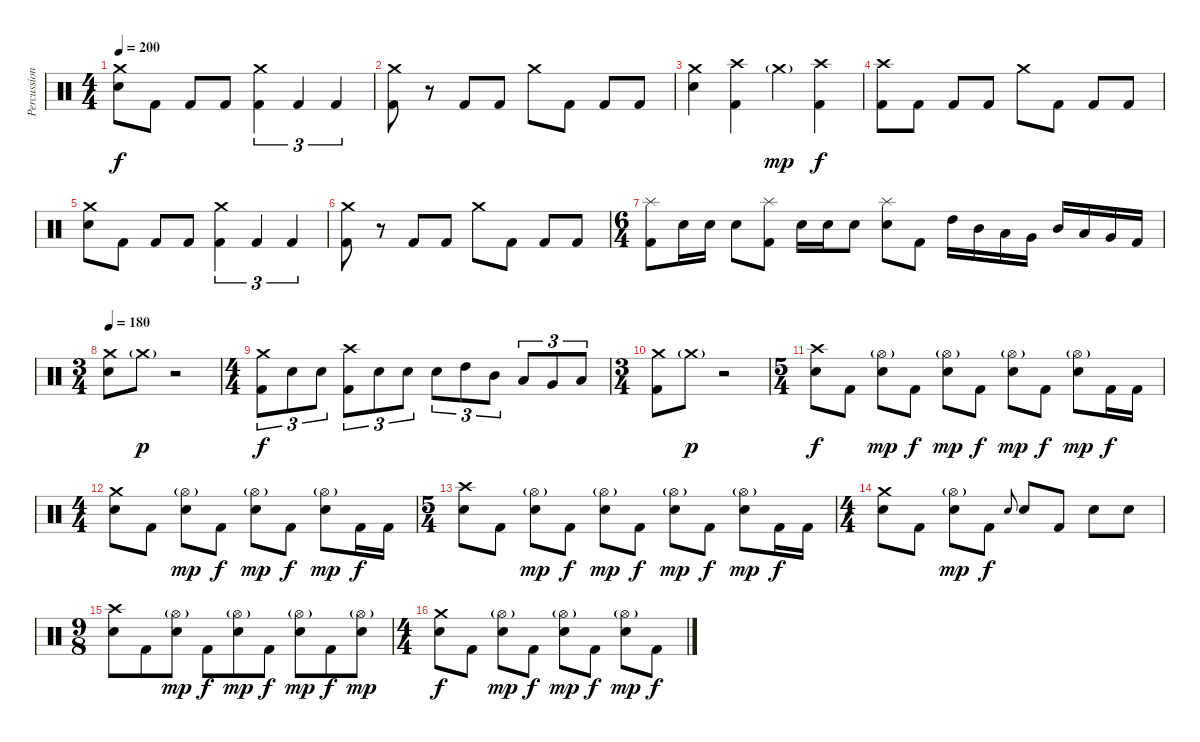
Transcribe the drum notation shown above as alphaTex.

\track ("Percussion" "Percussion") {instrument percussion}
\staff {score}
\articulation defaults
\ts (4 4)
\tempo 200
\clef neutral
\ks c
("Crash medium (hit)" "Electric Snare (hit)").8{dy f} "Kick (hit) 2".8 "Kick (hit) 2".8 "Kick (hit) 2".8 ("Crash medium (hit)" "Kick (hit) 2").4{tu (3 2)} "Kick (hit) 2".4{tu (3 2)} "Kick (hit) 2".4{tu (3 2)} |
("Crash medium (hit)" "Kick (hit) 2").8 r.8 "Kick (hit) 2".8 "Kick (hit) 2".8 "Crash medium (hit)".8 "Kick (hit) 2".8 "Kick (hit) 2".8 "Kick (hit) 2".8 |
("Crash medium (hit)" "Electric Snare (hit)").4 ("Crash high (hit)" "Kick (hit) 2").4 "Crash medium (hit)"{g}.4{dy mp} ("Crash high (hit)" "Kick (hit) 2").4{dy f} |
("Crash high (hit)" "Kick (hit) 2").8 "Kick (hit) 2".8 "Kick (hit) 2".8 "Kick (hit) 2".8 "Crash medium (hit)".8 "Kick (hit) 2".8 "Kick (hit) 2".8 "Kick (hit) 2".8 |
("Crash medium (hit)" "Electric Snare (hit)").8 "Kick (hit) 2".8 "Kick (hit) 2".8 "Kick (hit) 2".8 ("Crash medium (hit)" "Kick (hit) 2").4{tu (3 2)} "Kick (hit) 2".4{tu (3 2)} "Kick (hit) 2".4{tu (3 2)} |
("Crash medium (hit)" "Kick (hit) 2").8 r.8 "Kick (hit) 2".8 "Kick (hit) 2".8 "Crash medium (hit)".8 "Kick (hit) 2".8 "Kick (hit) 2".8 "Kick (hit) 2".8 |
\ts (6 4)
("Splash (hit)" "Kick (hit) 2").8 "Electric Snare (hit)".16 "Electric Snare (hit)".16 "Electric Snare (hit)".8 ("Splash (hit)" "Kick (hit) 2").8 "Electric Snare (hit)".16 "Electric Snare (hit)".16 "Electric Snare (hit)".8 ("Splash (hit)" "Electric Snare (hit)").8 "Kick (hit) 2".8 "High Tom (hit)".16 "Mid Tom (hit)".16 "Low Tom (hit)".16 "Very Low Tom (hit)".16 "Mid Tom (hit)".16 "Low Tom (hit)".16 "Very Low Tom (hit)".16 "Kick (hit) 2".16 |
\ts (3 4)
\tempo 180
("Crash medium (hit)" "Electric Snare (hit)").8 "Crash medium (hit)"{g}.8{dy p} r.2 |
\ts (4 4)
("Crash medium (hit)" "Kick (hit) 2").8{tu (3 2) dy f} "Electric Snare (hit)".8{tu (3 2)} "Electric Snare (hit)".8{tu (3 2)} ("Crash high (hit)" "Kick (hit) 2").8{tu (3 2)} "Electric Snare (hit)".8{tu (3 2)} "Electric Snare (hit)".8{tu (3 2)} "Electric Snare (hit)".8{tu (3 2)} "High Tom (hit)".8{tu (3 2)} "Mid Tom (hit)".8{tu (3 2)} "Low Tom (hit)".8{tu (3 2)} "Very Low Tom (hit)".8{tu (3 2)} "Low Floor Tom (hit)".8{tu (3 2)} |
\ts (3 4)
("Crash medium (hit)" "Kick (hit) 2").8 "Crash medium (hit)"{g}.8{dy p} r.2 |
\ts (5 4)
("Crash high (hit)" "Electric Snare (hit)").8{dy f} "Kick (hit) 2".8 ("Hi-Hat (open)"{g} "Electric Snare (hit)").8{dy mp} "Kick (hit) 2".8{dy f} ("Hi-Hat (open)"{g} "Electric Snare (hit)").8{dy mp} "Kick (hit) 2".8{dy f} ("Hi-Hat (open)"{g} "Electric Snare (hit)").8{dy mp} "Kick (hit) 2".8{dy f} ("Hi-Hat (open)"{g} "Electric Snare (hit)").8{dy mp} "Kick (hit) 2".16{dy f} "Kick (hit) 2".16 |
\ts (4 4)
("Crash medium (hit)" "Electric Snare (hit)").8 "Kick (hit) 2".8 ("Hi-Hat (open)"{g} "Electric Snare (hit)").8{dy mp} "Kick (hit) 2".8{dy f} ("Hi-Hat (open)"{g} "Electric Snare (hit)").8{dy mp} "Kick (hit) 2".8{dy f} ("Hi-Hat (open)"{g} "Electric Snare (hit)").8{dy mp} "Kick (hit) 2".16{dy f} "Kick (hit) 2".16 |
\ts (5 4)
("Crash high (hit)" "Electric Snare (hit)").8 "Kick (hit) 2".8 ("Hi-Hat (open)"{g} "Electric Snare (hit)").8{dy mp} "Kick (hit) 2".8{dy f} ("Hi-Hat (open)"{g} "Electric Snare (hit)").8{dy mp} "Kick (hit) 2".8{dy f} ("Hi-Hat (open)"{g} "Electric Snare (hit)").8{dy mp} "Kick (hit) 2".8{dy f} ("Hi-Hat (open)"{g} "Electric Snare (hit)").8{dy mp} "Kick (hit) 2".16{dy f} "Kick (hit) 2".16 |
\ts (4 4)
("Crash medium (hit)" "Electric Snare (hit)").8 "Kick (hit) 2".8 ("Hi-Hat (open)"{g} "Electric Snare (hit)").8{dy mp} "Kick (hit) 2".8{dy f} "Electric Snare (hit)".8{gr onbeat} "Electric Snare (hit)".8 "Kick (hit) 2".8 "Electric Snare (hit)".8 "Electric Snare (hit)".8 |
\ts (9 8)
("Crash high (hit)" "Electric Snare (hit)").8 "Kick (hit) 2".8 ("Hi-Hat (open)"{g} "Electric Snare (hit)").8{dy mp} "Kick (hit) 2".8{dy f} ("Hi-Hat (open)"{g} "Electric Snare (hit)").8{dy mp} "Kick (hit) 2".8{dy f} ("Hi-Hat (open)"{g} "Electric Snare (hit)").8{dy mp} "Kick (hit) 2".8{dy f} ("Hi-Hat (open)"{g} "Electric Snare (hit)").8{dy mp} |
\ts (4 4)
("Crash medium (hit)" "Electric Snare (hit)").8{dy f} "Kick (hit) 2".8 ("Hi-Hat (open)"{g} "Electric Snare (hit)").8{dy mp} "Kick (hit) 2".8{dy f} ("Hi-Hat (open)"{g} "Electric Snare (hit)").8{dy mp} "Kick (hit) 2".8{dy f} ("Hi-Hat (open)"{g} "Electric Snare (hit)").8{dy mp} "Kick (hit) 2".8{dy f}
